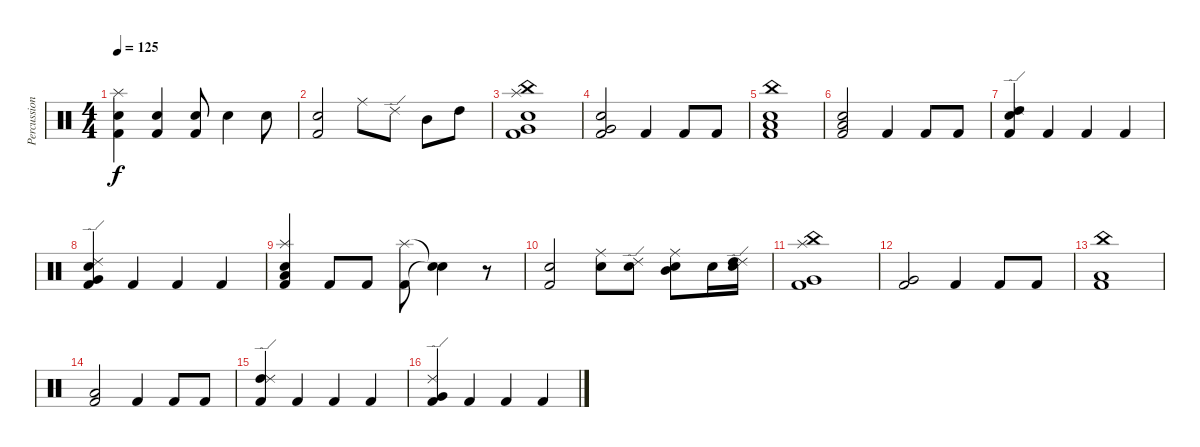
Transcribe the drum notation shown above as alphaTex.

\track ("Percussion" "Percussion") {instrument percussion}
\staff {score}
\articulation defaults
\ts (4 4)
\tempo 125
\clef neutral
\ks c
("Kick (hit) 2" "Snare (hit) 2" "Splash (hit)").4{dy f} ("Kick (hit) 2" "Snare (hit) 2").4 ("Kick (hit) 2" "Snare (hit) 2").8 "Snare (hit) 2".4 "Snare (hit) 2".8 |
("Kick (hit) 2" "Snare (hit) 2").2 "Ride (middle)".8 "Ride (edge) 2".8 "Mid Tom (hit)".8 "High Tom (hit)".8 |
("Kick (hit) 2" "Very Low Tom (hit)" "China (hit)" "Splash (hit)" "Snare (hit) 2").1 |
("Kick (hit) 2" "Very Low Tom (hit)" "Snare (hit) 2").2 "Kick (hit) 2".4 "Kick (hit) 2".8 "Kick (hit) 2".8 |
("Kick (hit) 2" "Low Floor Tom (hit)" "China (hit)" "Snare (hit) 2").1 |
("Kick (hit) 2" "Low Floor Tom (hit)" "Snare (hit) 2").2 "Kick (hit) 2".4 "Kick (hit) 2".8 "Kick (hit) 2".8 |
("Kick (hit) 2" "High Tom (hit)" "Ride (edge) 2" "Snare (hit) 2").4 "Kick (hit) 2".4 "Kick (hit) 2".4 "Kick (hit) 2".4 |
("Kick (hit) 2" "Very Low Tom (hit)" "Ride (edge) 2" "Snare (hit) 2").4 "Kick (hit) 2".4 "Kick (hit) 2".4 "Kick (hit) 2".4 |
("Kick (hit) 2" "Low Floor Tom (hit)" "Splash (hit)" "Snare (hit) 2").4 "Kick (hit) 2".8 "Kick (hit) 2".8 ("Kick (hit) 2" "Splash (hit)").8 ("Snare (hit)"{t} "Snare (hit)"{t}).4 r.8 |
("Kick (hit) 2" "Snare (hit) 2").2 ("Ride (middle)" "Snare (hit) 2").8 ("Ride (edge) 2" "Snare (hit) 2").8 ("Ride (middle)" "Mid Tom (hit)" "Snare (hit) 2").8 "Snare (hit) 2".16 ("Ride (edge) 2" "High Tom (hit)" "Snare (hit) 2").16 |
("Kick (hit) 2" "Very Low Tom (hit)" "China (hit)" "Splash (hit)").1 |
("Kick (hit) 2" "Very Low Tom (hit)").2 "Kick (hit) 2".4 "Kick (hit) 2".8 "Kick (hit) 2".8 |
("Kick (hit) 2" "Low Floor Tom (hit)" "China (hit)").1 |
("Kick (hit) 2" "Low Floor Tom (hit)").2 "Kick (hit) 2".4 "Kick (hit) 2".8 "Kick (hit) 2".8 |
("Kick (hit) 2" "High Tom (hit)" "Ride (edge) 2").4 "Kick (hit) 2".4 "Kick (hit) 2".4 "Kick (hit) 2".4 |
("Kick (hit) 2" "Very Low Tom (hit)" "Ride (edge) 2").4 "Kick (hit) 2".4 "Kick (hit) 2".4 "Kick (hit) 2".4
